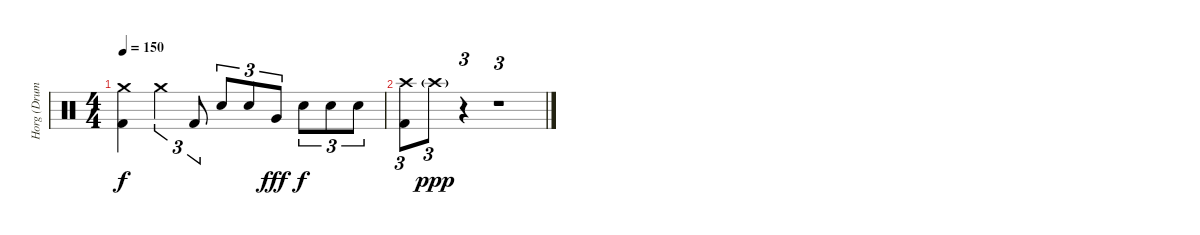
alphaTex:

\track ("Horg (Drums)" "Horg (Drum") {instrument percussion}
\staff {score}
\articulation defaults
\ts (4 4)
\tempo 150
\clef neutral
\ks c
("Crash medium (hit)" "Kick (hit) 2").4{dy f} "Crash medium (hit)".4{tu (3 2)} "Kick (hit) 2".8{tu (3 2)} "Electric Snare (hit)".8{tu (3 2)} "Electric Snare (hit)".8{tu (3 2)} "Very Low Tom (hit)".8{tu (3 2) dy fff} "Electric Snare (hit)".8{tu (3 2) dy f} "Electric Snare (hit)".8{tu (3 2)} "Electric Snare (hit)".8{tu (3 2)} |
("Crash high (hit)" "Kick (hit) 2").8{tu (3 2)} "Crash high (hit)"{g}.8{tu (3 2) dy ppp volume 0} r.4{tu (3 2)} r.1{tu (3 2)}
